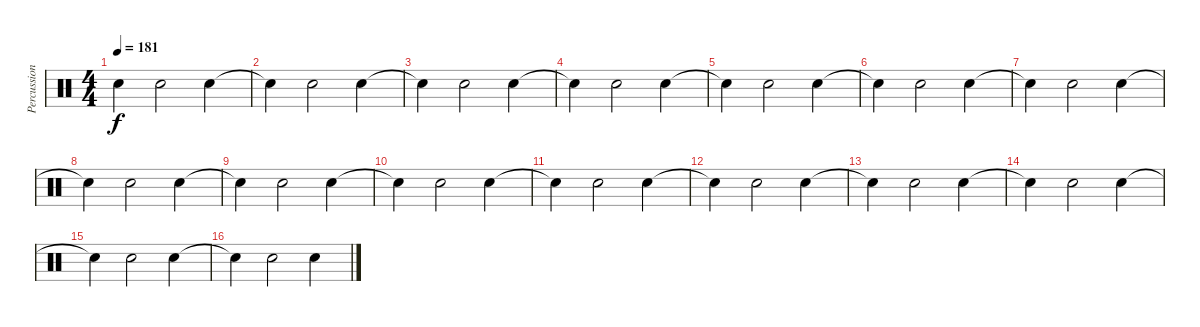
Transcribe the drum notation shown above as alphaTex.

\track ("Percussion" "Percussion") {instrument percussion}
\staff {score}
\articulation defaults
\ts (4 4)
\tempo 181
\clef neutral
\ks c "Hand Clap (hit)"{t}.4{dy f} "Hand Clap (hit)".2 "Hand Clap (hit)".4
|
"Hand Clap (hit)"{t}.4 "Hand Clap (hit)".2 "Hand Clap (hit)".4 |
"Hand Clap (hit)"{t}.4 "Hand Clap (hit)".2 "Hand Clap (hit)".4 |
"Hand Clap (hit)"{t}.4 "Hand Clap (hit)".2 "Hand Clap (hit)".4 |
"Hand Clap (hit)"{t}.4 "Hand Clap (hit)".2 "Hand Clap (hit)".4 |
"Hand Clap (hit)"{t}.4 "Hand Clap (hit)".2 "Hand Clap (hit)".4 |
"Hand Clap (hit)"{t}.4 "Hand Clap (hit)".2 "Hand Clap (hit)".4 |
"Hand Clap (hit)"{t}.4 "Hand Clap (hit)".2 "Hand Clap (hit)".4 |
"Hand Clap (hit)"{t}.4 "Hand Clap (hit)".2 "Hand Clap (hit)".4 |
"Hand Clap (hit)"{t}.4 "Hand Clap (hit)".2 "Hand Clap (hit)".4 |
"Hand Clap (hit)"{t}.4 "Hand Clap (hit)".2 "Hand Clap (hit)".4 |
"Hand Clap (hit)"{t}.4 "Hand Clap (hit)".2 "Hand Clap (hit)".4 |
"Hand Clap (hit)"{t}.4 "Hand Clap (hit)".2 "Hand Clap (hit)".4 |
"Hand Clap (hit)"{t}.4 "Hand Clap (hit)".2 "Hand Clap (hit)".4 |
"Hand Clap (hit)"{t}.4 "Hand Clap (hit)".2 "Hand Clap (hit)".4 |
"Hand Clap (hit)"{t}.4 "Hand Clap (hit)".2 "Hand Clap (hit)".4
